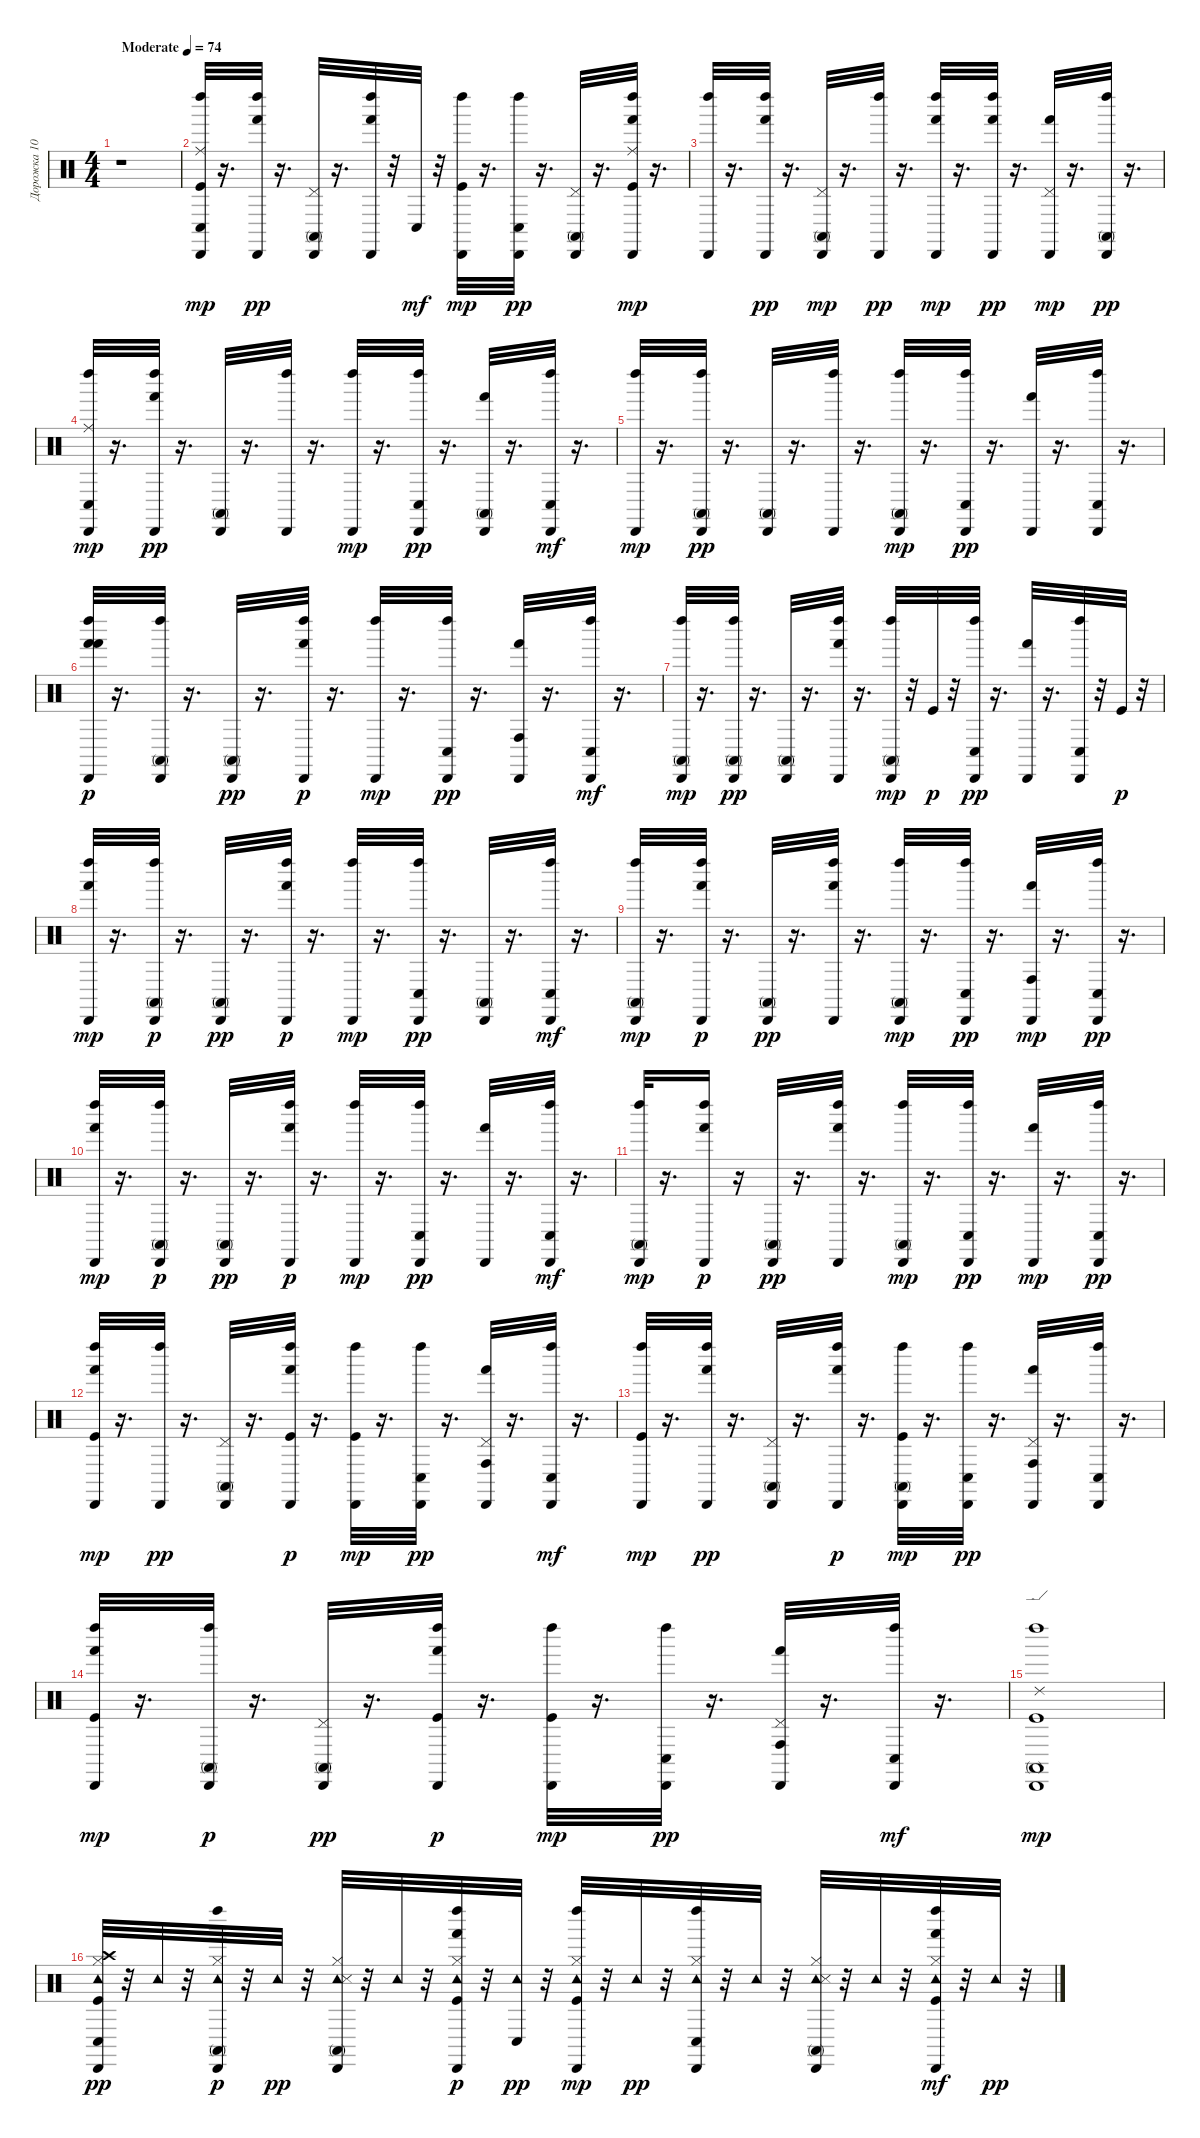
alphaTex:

\track ("Дорожка 10" "Дорожка 10") {instrument percussion}
\staff {score}
\articulation defaults
\ts (4 4)
\tempo (74 "Moderate")
\clef neutral
\ks c
r.1{dy mp} |
("Kick (hit)" "Ride (middle)" "Conga low (hit)" "Cabasa (hit)" "Left Maraca (hit)").32 r.16{d} ("Hand (hit)" "Cabasa (hit)" "Left Maraca (hit)").32{dy pp} r.16{d} ("Pedal Hi-Hat (hit)" "Conga high (mute)" "Cabasa (hit)").32 r.16{d} ("Hand (hit)" "Cabasa (hit)" "Left Maraca (hit)").32 r.32 "Conga low (hit)".32{dy mf} r.32 ("Cabasa (hit)" "Left Maraca (hit)" "Kick (hit)").32{dy mp} r.16{d} ("Conga low (hit)" "Cabasa (hit)" "Left Maraca (hit)").32{dy pp} r.16{d} ("Pedal Hi-Hat (hit)" "Conga high (mute)" "Cabasa (hit)").32 r.16{d} ("Hand (hit)" "Cabasa (hit)" "Left Maraca (hit)" "Kick (hit)" "Ride (middle)").32{dy mp} r.16{d} |
("Cabasa (hit)" "Left Maraca (hit)").32 r.16{d} ("Hand (hit)" "Cabasa (hit)" "Left Maraca (hit)").32{dy pp} r.16{d} ("Conga high (mute)" "Cabasa (hit)" "Pedal Hi-Hat (hit)").32{dy mp} r.16{d} ("Cabasa (hit)" "Left Maraca (hit)").32{dy pp} r.16{d} ("Hand (hit)" "Cabasa (hit)" "Left Maraca (hit)").32{dy mp} r.16{d} ("Hand (hit)" "Cabasa (hit)" "Left Maraca (hit)").32{dy pp} r.16{d} ("Hand (hit)" "Cabasa (hit)" "Pedal Hi-Hat (hit)").32{dy mp} r.16{d} ("Conga high (mute)" "Cabasa (hit)" "Left Maraca (hit)").32{dy pp} r.16{d} |
("Ride (middle)" "Conga low (hit)" "Cabasa (hit)" "Left Maraca (hit)").32{dy mp} r.16{d} ("Hand (hit)" "Cabasa (hit)" "Left Maraca (hit)").32{dy pp} r.16{d} ("Conga high (mute)" "Cabasa (hit)").32 r.16{d} ("Cabasa (hit)" "Left Maraca (hit)").32 r.16{d} ("Cabasa (hit)" "Left Maraca (hit)").32{dy mp} r.16{d} ("Conga low (hit)" "Cabasa (hit)" "Left Maraca (hit)").32{dy pp} r.16{d} ("Conga high (mute)" "Hand (hit)" "Cabasa (hit)").32 r.16{d} ("Cabasa (hit)" "Left Maraca (hit)" "Conga low (hit)").32{dy mf} r.16{d} |
("Cabasa (hit)" "Left Maraca (hit)").32{dy mp} r.16{d} ("Conga high (mute)" "Cabasa (hit)" "Left Maraca (hit)").32{dy pp} r.16{d} ("Conga high (mute)" "Cabasa (hit)").32 r.16{d} ("Cabasa (hit)" "Left Maraca (hit)").32 r.16{d} ("Conga high (mute)" "Cabasa (hit)" "Left Maraca (hit)").32{dy mp} r.16{d} ("Conga low (hit)" "Cabasa (hit)" "Left Maraca (hit)").32{dy pp} r.16{d} ("Hand (hit)" "Cabasa (hit)").32 r.16{d} ("Conga low (hit)" "Cabasa (hit)" "Left Maraca (hit)").32 r.16{d} |
("Hand (hit)" "Cabasa (hit)" "Left Maraca (hit)" "Hand (hit)").32{dy p} r.16{d} ("Cabasa (hit)" "Left Maraca (hit)" "Conga high (mute)").32 r.16{d} ("Conga high (mute)" "Cabasa (hit)").32{dy pp} r.16{d} ("Cabasa (hit)" "Left Maraca (hit)" "Hand (hit)").32{dy p} r.16{d} ("Cabasa (hit)" "Left Maraca (hit)").32{dy mp} r.16{d} ("Conga low (hit)" "Cabasa (hit)" "Left Maraca (hit)").32{dy pp} r.16{d} ("Hand (hit)" "Conga high (hit)" "Cabasa (hit)").32 r.16{d} ("Cabasa (hit)" "Left Maraca (hit)" "Conga low (hit)").32{dy mf} r.16{d} |
("Conga high (mute)" "Cabasa (hit)" "Left Maraca (hit)").32{dy mp} r.16{d} ("Conga high (mute)" "Cabasa (hit)" "Left Maraca (hit)").32{dy pp} r.16{d} ("Conga high (mute)" "Cabasa (hit)").32 r.16{d} ("Cabasa (hit)" "Left Maraca (hit)" "Hand (hit)").32 r.16{d} ("Conga high (mute)" "Cabasa (hit)" "Left Maraca (hit)").32{dy mp} r.32 "Kick (hit)".32{dy p} r.32 ("Conga low (hit)" "Cabasa (hit)" "Left Maraca (hit)").32{dy pp} r.16{d} ("Hand (hit)" "Cabasa (hit)").32 r.16{d} ("Conga low (hit)" "Cabasa (hit)" "Left Maraca (hit)").32 r.32 "Kick (hit)".32{dy p} r.32 |
("Hand (hit)" "Cabasa (hit)" "Left Maraca (hit)").32{dy mp} r.16{d} ("Cabasa (hit)" "Left Maraca (hit)" "Conga high (mute)").32{dy p} r.16{d} ("Conga high (mute)" "Cabasa (hit)").32{dy pp} r.16{d} ("Cabasa (hit)" "Left Maraca (hit)" "Hand (hit)").32{dy p} r.16{d} ("Cabasa (hit)" "Left Maraca (hit)").32{dy mp} r.16{d} ("Conga low (hit)" "Cabasa (hit)" "Left Maraca (hit)").32{dy pp} r.16{d} ("Conga high (mute)" "Cabasa (hit)").32 r.16{d} ("Cabasa (hit)" "Left Maraca (hit)" "Conga low (hit)").32{dy mf} r.16{d} |
("Conga high (mute)" "Cabasa (hit)" "Left Maraca (hit)").32{dy mp} r.16{d} ("Cabasa (hit)" "Left Maraca (hit)" "Hand (hit)").32{dy p} r.16{d} ("Conga high (mute)" "Cabasa (hit)").32{dy pp} r.16{d} ("Cabasa (hit)" "Left Maraca (hit)" "Hand (hit)").32 r.16{d} ("Conga high (mute)" "Cabasa (hit)" "Left Maraca (hit)").32{dy mp} r.16{d} ("Conga low (hit)" "Cabasa (hit)" "Left Maraca (hit)").32{dy pp} r.16{d} ("Cabasa (hit)" "Conga high (hit)" "Hand (hit)").32{dy mp} r.16{d} ("Conga low (hit)" "Cabasa (hit)" "Left Maraca (hit)").32{dy pp} r.16{d} |
("Hand (hit)" "Cabasa (hit)" "Left Maraca (hit)").32{dy mp} r.16{d} ("Cabasa (hit)" "Left Maraca (hit)" "Conga high (mute)").32{dy p} r.16{d} ("Conga high (mute)" "Cabasa (hit)").32{dy pp} r.16{d} ("Cabasa (hit)" "Left Maraca (hit)" "Hand (hit)").32{dy p} r.16{d} ("Cabasa (hit)" "Left Maraca (hit)").32{dy mp} r.16{d} ("Conga low (hit)" "Cabasa (hit)" "Left Maraca (hit)").32{dy pp} r.16{d} ("Hand (hit)" "Cabasa (hit)").32 r.16{d} ("Cabasa (hit)" "Left Maraca (hit)" "Conga low (hit)").32{dy mf} r.16{d} |
("Conga high (mute)" "Cabasa (hit)" "Left Maraca (hit)").32{dy mp} r.16{d} ("Cabasa (hit)" "Left Maraca (hit)" "Hand (hit)").16{dy p} r.16 ("Conga high (mute)" "Cabasa (hit)").32{dy pp} r.16{d} ("Cabasa (hit)" "Left Maraca (hit)" "Hand (hit)").32 r.16{d} ("Conga high (mute)" "Cabasa (hit)" "Left Maraca (hit)").32{dy mp} r.16{d} ("Conga low (hit)" "Cabasa (hit)" "Left Maraca (hit)").32{dy pp} r.16{d} ("Cabasa (hit)" "Hand (hit)").32{dy mp} r.16{d} ("Conga low (hit)" "Cabasa (hit)" "Left Maraca (hit)").32{dy pp} r.16{d} |
("Hand (hit)" "Kick (hit)" "Cabasa (hit)" "Left Maraca (hit)").32{dy mp} r.16{d} ("Cabasa (hit)" "Left Maraca (hit)").32{dy pp} r.16{d} ("Pedal Hi-Hat (hit)" "Conga high (mute)" "Cabasa (hit)").32 r.16{d} ("Cabasa (hit)" "Left Maraca (hit)" "Hand (hit)" "Kick (hit)").32{dy p} r.16{d} ("Cabasa (hit)" "Left Maraca (hit)" "Kick (hit)").32{dy mp} r.16{d} ("Conga low (hit)" "Cabasa (hit)" "Left Maraca (hit)").32{dy pp} r.16{d} ("Conga high (hit)" "Pedal Hi-Hat (hit)" "Hand (hit)" "Cabasa (hit)").32 r.16{d} ("Cabasa (hit)" "Left Maraca (hit)" "Conga low (hit)").32{dy mf} r.16{d} |
("Kick (hit)" "Cabasa (hit)" "Left Maraca (hit)").32{dy mp} r.16{d} ("Hand (hit)" "Cabasa (hit)" "Left Maraca (hit)").32{dy pp} r.16{d} ("Conga high (mute)" "Cabasa (hit)" "Pedal Hi-Hat (hit)").32 r.16{d} ("Cabasa (hit)" "Left Maraca (hit)" "Hand (hit)").32{dy p} r.16{d} ("Kick (hit)" "Conga high (mute)" "Cabasa (hit)" "Left Maraca (hit)").32{dy mp} r.16{d} ("Conga low (hit)" "Cabasa (hit)" "Left Maraca (hit)").32{dy pp} r.16{d} ("Hand (hit)" "Cabasa (hit)" "Conga high (hit)" "Pedal Hi-Hat (hit)").32 r.16{d} ("Conga low (hit)" "Cabasa (hit)" "Left Maraca (hit)").32 r.16{d} |
("Kick (hit)" "Hand (hit)" "Cabasa (hit)" "Left Maraca (hit)").32{dy mp} r.16{d} ("Cabasa (hit)" "Left Maraca (hit)" "Conga high (mute)").32{dy p} r.16{d} ("Pedal Hi-Hat (hit)" "Conga high (mute)" "Cabasa (hit)").32{dy pp} r.16{d} ("Cabasa (hit)" "Left Maraca (hit)" "Kick (hit)" "Hand (hit)").32{dy p} r.16{d} ("Cabasa (hit)" "Left Maraca (hit)" "Kick (hit)").32{dy mp} r.16{d} ("Conga low (hit)" "Cabasa (hit)" "Left Maraca (hit)").32{dy pp} r.16{d} ("Pedal Hi-Hat (hit)" "Conga high (hit)" "Hand (hit)" "Cabasa (hit)").32 r.16{d} ("Cabasa (hit)" "Left Maraca (hit)" "Conga low (hit)").32{dy mf} r.16{d} |
("Ride (edge) 2" "Kick (hit)" "Conga high (mute)" "Cabasa (hit)" "Left Maraca (hit)").1{dy mp} |
("Conga low (hit)" "Crash high (hit)" "Tambourine (hit)" "Kick (hit)" "Hi-Hat (closed)" "Cabasa (hit)").32{dy pp} r.32 "Tambourine (hit)".32 r.32 ("Hi-Hat (closed)" "Tambourine (hit)" "Cabasa (hit)" "Left Maraca (hit)" "Conga high (mute)").32{dy p} r.32 "Tambourine (hit)".32{dy pp} r.32 ("Tambourine (hit)" "Snare (side stick) 3" "Hi-Hat (closed)" "Conga high (mute)" "Cabasa (hit)").32 r.32 "Tambourine (hit)".32 r.32 ("Kick (hit)" "Hi-Hat (closed)" "Tambourine (hit)" "Cabasa (hit)" "Left Maraca (hit)" "Hand (hit)").32{dy p} r.32 ("Conga low (hit)" "Tambourine (hit)").32{dy pp} r.32 ("Kick (hit)" "Hi-Hat (closed)" "Tambourine (hit)" "Cabasa (hit)" "Left Maraca (hit)").32{dy mp} r.32 "Tambourine (hit)".32{dy pp} r.32 ("Conga low (hit)" "Hi-Hat (closed)" "Tambourine (hit)" "Cabasa (hit)" "Left Maraca (hit)").32 r.32 "Tambourine (hit)".32 r.32 ("Conga high (mute)" "Tambourine (hit)" "Snare (side stick) 3" "Hi-Hat (closed)" "Cabasa (hit)").32 r.32 "Tambourine (hit)".32 r.32 ("Kick (hit)" "Hi-Hat (closed)" "Tambourine (hit)" "Cabasa (hit)" "Left Maraca (hit)" "Hand (hit)").32{dy mf} r.32 "Tambourine (hit)".32{dy pp} r.32
